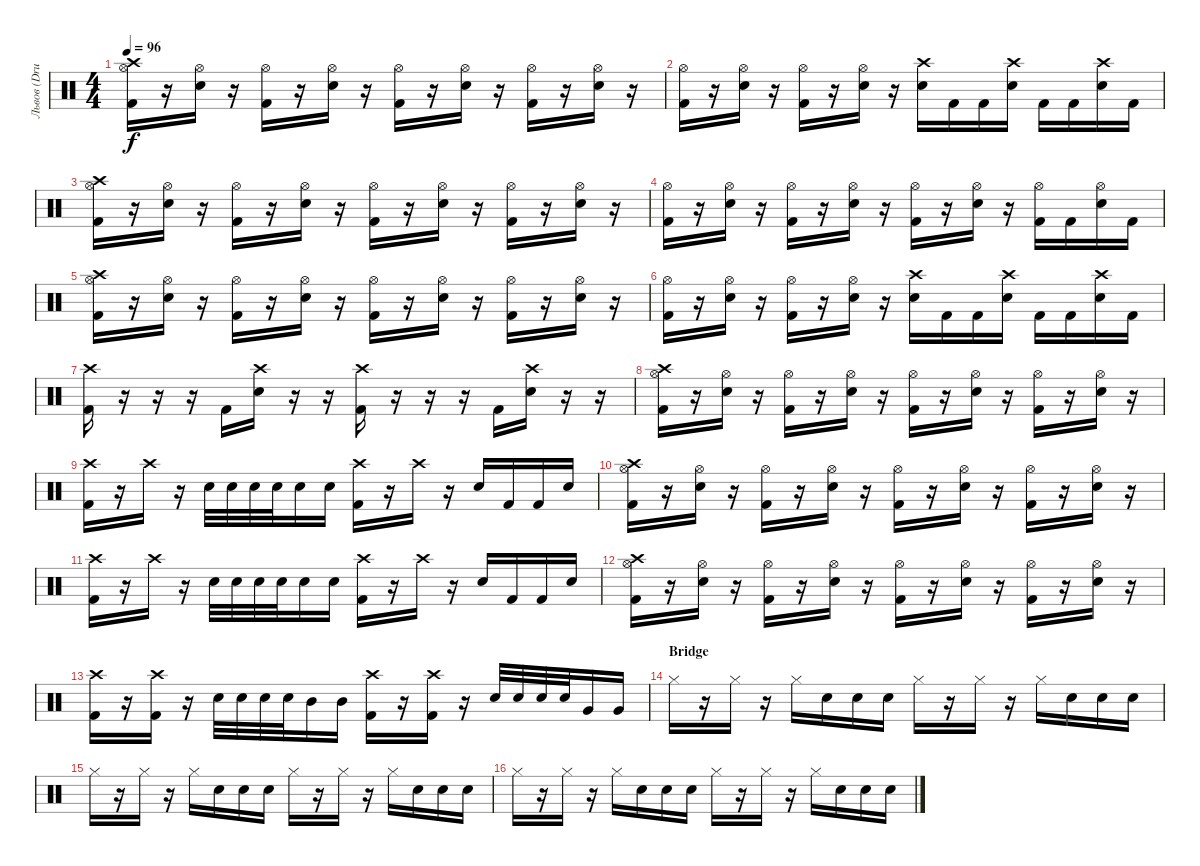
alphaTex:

\track ("Львов (Drums)" "Львов (Dru") {instrument percussion}
\staff {score}
\articulation defaults
\ts (4 4)
\tempo 96
\clef neutral
\ks c
("Kick (hit) 2" "Crash high (hit)" "Hi-Hat (open)").16{dy f} r.16 ("Electric Snare (hit)" "Hi-Hat (open)").16 r.16 ("Kick (hit) 2" "Hi-Hat (open)").16 r.16 ("Electric Snare (hit)" "Hi-Hat (open)").16 r.16 ("Kick (hit) 2" "Hi-Hat (open)").16 r.16 ("Electric Snare (hit)" "Hi-Hat (open)").16 r.16 ("Kick (hit) 2" "Hi-Hat (open)").16 r.16 ("Electric Snare (hit)" "Hi-Hat (open)").16 r.16 |
("Kick (hit) 2" "Hi-Hat (open)").16 r.16 ("Electric Snare (hit)" "Hi-Hat (open)").16 r.16 ("Kick (hit) 2" "Hi-Hat (open)").16 r.16 ("Electric Snare (hit)" "Hi-Hat (open)").16 r.16 ("Electric Snare (hit)" "Crash high (hit)").16 "Kick (hit) 2".16 "Kick (hit) 2".16 ("Electric Snare (hit)" "Crash high (hit)").16 "Kick (hit) 2".16 "Kick (hit) 2".16 ("Electric Snare (hit)" "Crash high (hit)").16 "Kick (hit) 2".16 |
("Kick (hit) 2" "Crash high (hit)" "Hi-Hat (open)").16 r.16 ("Electric Snare (hit)" "Hi-Hat (open)").16 r.16 ("Kick (hit) 2" "Hi-Hat (open)").16 r.16 ("Electric Snare (hit)" "Hi-Hat (open)").16 r.16 ("Kick (hit) 2" "Hi-Hat (open)").16 r.16 ("Electric Snare (hit)" "Hi-Hat (open)").16 r.16 ("Kick (hit) 2" "Hi-Hat (open)").16 r.16 ("Electric Snare (hit)" "Hi-Hat (open)").16 r.16 |
("Kick (hit) 2" "Hi-Hat (open)").16 r.16 ("Electric Snare (hit)" "Hi-Hat (open)").16 r.16 ("Kick (hit) 2" "Hi-Hat (open)").16 r.16 ("Electric Snare (hit)" "Hi-Hat (open)").16 r.16 ("Kick (hit) 2" "Hi-Hat (open)").16 r.16 ("Electric Snare (hit)" "Hi-Hat (open)").16 r.16 ("Kick (hit) 2" "Hi-Hat (open)").16 "Kick (hit) 2".16 ("Electric Snare (hit)" "Hi-Hat (open)").16 "Kick (hit) 2".16 |
("Kick (hit) 2" "Crash high (hit)" "Hi-Hat (open)").16 r.16 ("Electric Snare (hit)" "Hi-Hat (open)").16 r.16 ("Kick (hit) 2" "Hi-Hat (open)").16 r.16 ("Electric Snare (hit)" "Hi-Hat (open)").16 r.16 ("Kick (hit) 2" "Hi-Hat (open)").16 r.16 ("Electric Snare (hit)" "Hi-Hat (open)").16 r.16 ("Kick (hit) 2" "Hi-Hat (open)").16 r.16 ("Electric Snare (hit)" "Hi-Hat (open)").16 r.16 |
("Kick (hit) 2" "Hi-Hat (open)").16 r.16 ("Electric Snare (hit)" "Hi-Hat (open)").16 r.16 ("Kick (hit) 2" "Hi-Hat (open)").16 r.16 ("Electric Snare (hit)" "Hi-Hat (open)").16 r.16 ("Electric Snare (hit)" "Crash high (hit)").16 "Kick (hit) 2".16 "Kick (hit) 2".16 ("Electric Snare (hit)" "Crash high (hit)").16 "Kick (hit) 2".16 "Kick (hit) 2".16 ("Electric Snare (hit)" "Crash high (hit)").16 "Kick (hit) 2".16 |
("Kick (hit) 2" "Crash high (hit)").16 r.16 r.16 r.16 "Kick (hit) 2".16 ("Electric Snare (hit)" "Crash high (hit)").16 r.16 r.16 ("Kick (hit) 2" "Crash high (hit)").16 r.16 r.16 r.16 "Kick (hit) 2".16 ("Electric Snare (hit)" "Crash high (hit)").16 r.16 r.16 |
("Kick (hit) 2" "Crash high (hit)" "Hi-Hat (open)").16 r.16 ("Electric Snare (hit)" "Hi-Hat (open)").16 r.16 ("Kick (hit) 2" "Hi-Hat (open)").16 r.16 ("Electric Snare (hit)" "Hi-Hat (open)").16 r.16 ("Kick (hit) 2" "Hi-Hat (open)").16 r.16 ("Electric Snare (hit)" "Hi-Hat (open)").16 r.16 ("Kick (hit) 2" "Hi-Hat (open)").16 r.16 ("Electric Snare (hit)" "Hi-Hat (open)").16 r.16 |
("Kick (hit) 2" "Crash high (hit)").16 r.16 "Crash high (hit)".16 r.16 "Electric Snare (hit)".32 "Electric Snare (hit)".32 "Electric Snare (hit)".32 "Electric Snare (hit)".32 "Electric Snare (hit)".16 "Electric Snare (hit)".16 ("Kick (hit) 2" "Crash high (hit)").16 r.16 "Crash high (hit)".16 r.16 "Electric Snare (hit)".16 "Kick (hit) 2".16 "Kick (hit) 2".16 "Electric Snare (hit)".16 |
("Kick (hit) 2" "Crash high (hit)" "Hi-Hat (open)").16 r.16 ("Electric Snare (hit)" "Hi-Hat (open)").16 r.16 ("Kick (hit) 2" "Hi-Hat (open)").16 r.16 ("Electric Snare (hit)" "Hi-Hat (open)").16 r.16 ("Kick (hit) 2" "Hi-Hat (open)").16 r.16 ("Electric Snare (hit)" "Hi-Hat (open)").16 r.16 ("Kick (hit) 2" "Hi-Hat (open)").16 r.16 ("Electric Snare (hit)" "Hi-Hat (open)").16 r.16 |
("Kick (hit) 2" "Crash high (hit)").16 r.16 "Crash high (hit)".16 r.16 "Electric Snare (hit)".32 "Electric Snare (hit)".32 "Electric Snare (hit)".32 "Electric Snare (hit)".32 "Electric Snare (hit)".16 "Electric Snare (hit)".16 ("Kick (hit) 2" "Crash high (hit)").16 r.16 "Crash high (hit)".16 r.16 "Electric Snare (hit)".16 "Kick (hit) 2".16 "Kick (hit) 2".16 "Electric Snare (hit)".16 |
("Kick (hit) 2" "Crash high (hit)" "Hi-Hat (open)").16 r.16 ("Electric Snare (hit)" "Hi-Hat (open)").16 r.16 ("Kick (hit) 2" "Hi-Hat (open)").16 r.16 ("Electric Snare (hit)" "Hi-Hat (open)").16 r.16 ("Kick (hit) 2" "Hi-Hat (open)").16 r.16 ("Electric Snare (hit)" "Hi-Hat (open)").16 r.16 ("Kick (hit) 2" "Hi-Hat (open)").16 r.16 ("Electric Snare (hit)" "Hi-Hat (open)").16 r.16 |
("Kick (hit) 2" "Crash high (hit)").16 r.16 ("Kick (hit) 2" "Crash high (hit)").16 r.16 "Electric Snare (hit)".32 "Electric Snare (hit)".32 "Electric Snare (hit)".32 "Electric Snare (hit)".32 "Mid Tom (hit)".16 "Mid Tom (hit)".16 ("Kick (hit) 2" "Crash high (hit)").16 r.16 ("Kick (hit) 2" "Crash high (hit)").16 r.16 "Electric Snare (hit)".32 "Electric Snare (hit)".32 "Electric Snare (hit)".32 "Electric Snare (hit)".32 "Very Low Tom (hit)".16 "Very Low Tom (hit)".16 |
\section ("" "Bridge")
"Hi-Hat (closed)".16 r.16 "Hi-Hat (closed)".16 r.16 "Hi-Hat (closed)".16 "Electric Snare (hit)".16 "Electric Snare (hit)".16 "Electric Snare (hit)".16 "Hi-Hat (closed)".16 r.16 "Hi-Hat (closed)".16 r.16 "Hi-Hat (closed)".16 "Electric Snare (hit)".16 "Electric Snare (hit)".16 "Electric Snare (hit)".16 |
"Hi-Hat (closed)".16 r.16 "Hi-Hat (closed)".16 r.16 "Hi-Hat (closed)".16 "Electric Snare (hit)".16 "Electric Snare (hit)".16 "Electric Snare (hit)".16 "Hi-Hat (closed)".16 r.16 "Hi-Hat (closed)".16 r.16 "Hi-Hat (closed)".16 "Electric Snare (hit)".16 "Electric Snare (hit)".16 "Electric Snare (hit)".16 |
"Hi-Hat (closed)".16 r.16 "Hi-Hat (closed)".16 r.16 "Hi-Hat (closed)".16 "Electric Snare (hit)".16 "Electric Snare (hit)".16 "Electric Snare (hit)".16 "Hi-Hat (closed)".16 r.16 "Hi-Hat (closed)".16 r.16 "Hi-Hat (closed)".16 "Electric Snare (hit)".16 "Electric Snare (hit)".16 "Electric Snare (hit)".16
